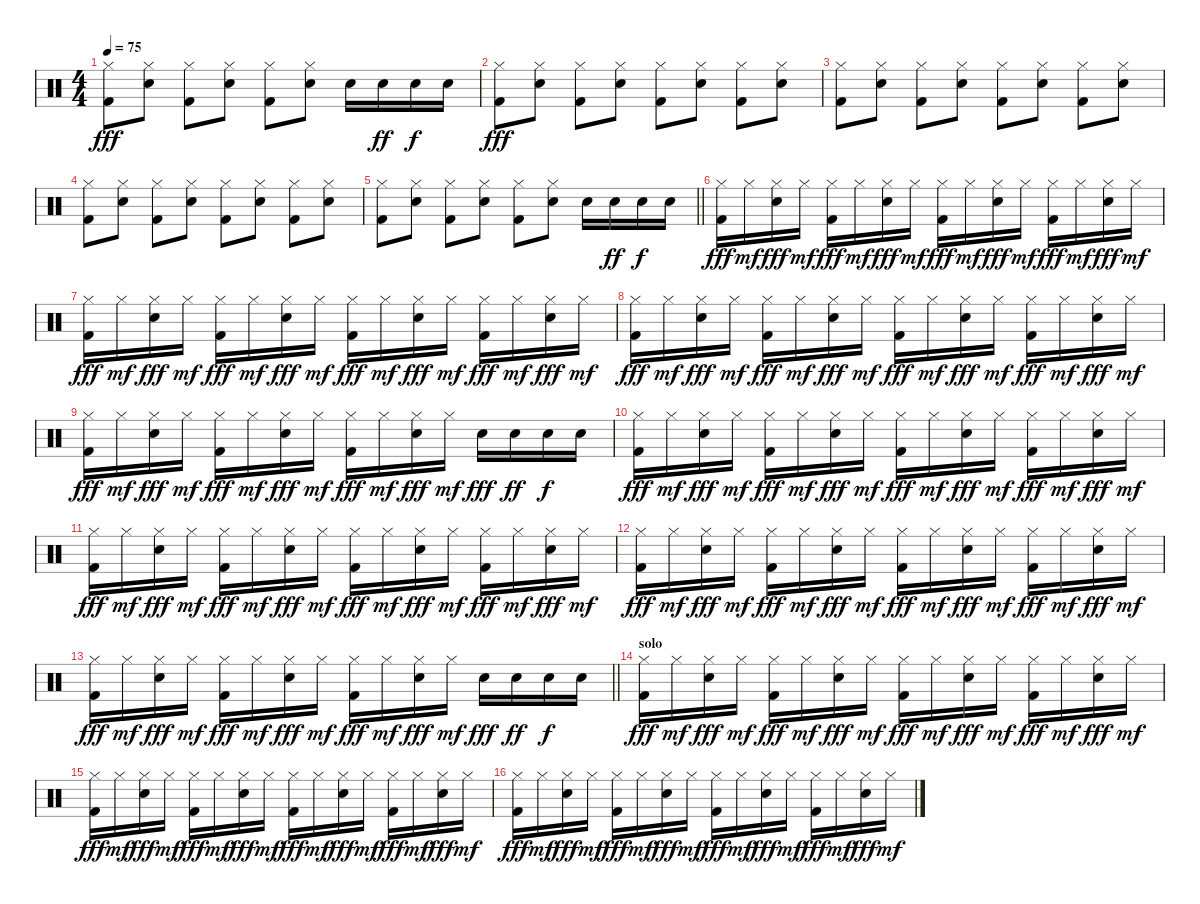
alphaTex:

\track "" {instrument percussion}
\staff {score}
\articulation defaults
\ts (4 4)
\tempo 75
\clef neutral
\ks c
("Hi-Hat (closed)" "Kick (hit) 2").8{dy fff} ("Hi-Hat (closed)" "Snare (hit) 2").8 ("Hi-Hat (closed)" "Kick (hit) 2").8 ("Hi-Hat (closed)" "Snare (hit) 2").8 ("Hi-Hat (closed)" "Kick (hit) 2").8 ("Hi-Hat (closed)" "Snare (hit) 2").8 "Snare (hit) 2".16 "Snare (hit) 2".16{dy ff} "Snare (hit) 2".16{dy f} "Snare (hit) 2".16 |
("Hi-Hat (closed)" "Kick (hit) 2").8{dy fff} ("Hi-Hat (closed)" "Snare (hit) 2").8 ("Hi-Hat (closed)" "Kick (hit) 2").8 ("Hi-Hat (closed)" "Snare (hit) 2").8 ("Hi-Hat (closed)" "Kick (hit) 2").8 ("Hi-Hat (closed)" "Snare (hit) 2").8 ("Hi-Hat (closed)" "Kick (hit) 2").8 ("Hi-Hat (closed)" "Snare (hit) 2").8 |
("Hi-Hat (closed)" "Kick (hit) 2").8 ("Hi-Hat (closed)" "Snare (hit) 2").8 ("Hi-Hat (closed)" "Kick (hit) 2").8 ("Hi-Hat (closed)" "Snare (hit) 2").8 ("Hi-Hat (closed)" "Kick (hit) 2").8 ("Hi-Hat (closed)" "Snare (hit) 2").8 ("Hi-Hat (closed)" "Kick (hit) 2").8 ("Hi-Hat (closed)" "Snare (hit) 2").8 |
("Hi-Hat (closed)" "Kick (hit) 2").8 ("Hi-Hat (closed)" "Snare (hit) 2").8 ("Hi-Hat (closed)" "Kick (hit) 2").8 ("Hi-Hat (closed)" "Snare (hit) 2").8 ("Hi-Hat (closed)" "Kick (hit) 2").8 ("Hi-Hat (closed)" "Snare (hit) 2").8 ("Hi-Hat (closed)" "Kick (hit) 2").8 ("Hi-Hat (closed)" "Snare (hit) 2").8 |
\barLineRight lightlight
("Hi-Hat (closed)" "Kick (hit) 2").8 ("Hi-Hat (closed)" "Snare (hit) 2").8 ("Hi-Hat (closed)" "Kick (hit) 2").8 ("Hi-Hat (closed)" "Snare (hit) 2").8 ("Hi-Hat (closed)" "Kick (hit) 2").8 ("Hi-Hat (closed)" "Snare (hit) 2").8 "Snare (hit) 2".16 "Snare (hit) 2".16{dy ff} "Snare (hit) 2".16{dy f} "Snare (hit) 2".16 |
\section ("" "")
("Hi-Hat (closed)" "Kick (hit) 2").16{dy fff} "Hi-Hat (closed)".16{dy mf} ("Hi-Hat (closed)" "Snare (hit) 2").16{dy fff} "Hi-Hat (closed)".16{dy mf} ("Hi-Hat (closed)" "Kick (hit) 2").16{dy fff} "Hi-Hat (closed)".16{dy mf} ("Hi-Hat (closed)" "Snare (hit) 2").16{dy fff} "Hi-Hat (closed)".16{dy mf} ("Hi-Hat (closed)" "Kick (hit) 2").16{dy fff} "Hi-Hat (closed)".16{dy mf} ("Hi-Hat (closed)" "Snare (hit) 2").16{dy fff} "Hi-Hat (closed)".16{dy mf} ("Hi-Hat (closed)" "Kick (hit) 2").16{dy fff} "Hi-Hat (closed)".16{dy mf} ("Hi-Hat (closed)" "Snare (hit) 2").16{dy fff} "Hi-Hat (closed)".16{dy mf} |
("Hi-Hat (closed)" "Kick (hit) 2").16{dy fff} "Hi-Hat (closed)".16{dy mf} ("Hi-Hat (closed)" "Snare (hit) 2").16{dy fff} "Hi-Hat (closed)".16{dy mf} ("Hi-Hat (closed)" "Kick (hit) 2").16{dy fff} "Hi-Hat (closed)".16{dy mf} ("Hi-Hat (closed)" "Snare (hit) 2").16{dy fff} "Hi-Hat (closed)".16{dy mf} ("Hi-Hat (closed)" "Kick (hit) 2").16{dy fff} "Hi-Hat (closed)".16{dy mf} ("Hi-Hat (closed)" "Snare (hit) 2").16{dy fff} "Hi-Hat (closed)".16{dy mf} ("Hi-Hat (closed)" "Kick (hit) 2").16{dy fff} "Hi-Hat (closed)".16{dy mf} ("Hi-Hat (closed)" "Snare (hit) 2").16{dy fff} "Hi-Hat (closed)".16{dy mf} |
("Hi-Hat (closed)" "Kick (hit) 2").16{dy fff} "Hi-Hat (closed)".16{dy mf} ("Hi-Hat (closed)" "Snare (hit) 2").16{dy fff} "Hi-Hat (closed)".16{dy mf} ("Hi-Hat (closed)" "Kick (hit) 2").16{dy fff} "Hi-Hat (closed)".16{dy mf} ("Hi-Hat (closed)" "Snare (hit) 2").16{dy fff} "Hi-Hat (closed)".16{dy mf} ("Hi-Hat (closed)" "Kick (hit) 2").16{dy fff} "Hi-Hat (closed)".16{dy mf} ("Hi-Hat (closed)" "Snare (hit) 2").16{dy fff} "Hi-Hat (closed)".16{dy mf} ("Hi-Hat (closed)" "Kick (hit) 2").16{dy fff} "Hi-Hat (closed)".16{dy mf} ("Hi-Hat (closed)" "Snare (hit) 2").16{dy fff} "Hi-Hat (closed)".16{dy mf} |
("Hi-Hat (closed)" "Kick (hit) 2").16{dy fff} "Hi-Hat (closed)".16{dy mf} ("Hi-Hat (closed)" "Snare (hit) 2").16{dy fff} "Hi-Hat (closed)".16{dy mf} ("Hi-Hat (closed)" "Kick (hit) 2").16{dy fff} "Hi-Hat (closed)".16{dy mf} ("Hi-Hat (closed)" "Snare (hit) 2").16{dy fff} "Hi-Hat (closed)".16{dy mf} ("Hi-Hat (closed)" "Kick (hit) 2").16{dy fff} "Hi-Hat (closed)".16{dy mf} ("Hi-Hat (closed)" "Snare (hit) 2").16{dy fff} "Hi-Hat (closed)".16{dy mf} "Snare (hit) 2".16{dy fff} "Snare (hit) 2".16{dy ff} "Snare (hit) 2".16{dy f} "Snare (hit) 2".16 |
("Hi-Hat (closed)" "Kick (hit) 2").16{dy fff} "Hi-Hat (closed)".16{dy mf} ("Hi-Hat (closed)" "Snare (hit) 2").16{dy fff} "Hi-Hat (closed)".16{dy mf} ("Hi-Hat (closed)" "Kick (hit) 2").16{dy fff} "Hi-Hat (closed)".16{dy mf} ("Hi-Hat (closed)" "Snare (hit) 2").16{dy fff} "Hi-Hat (closed)".16{dy mf} ("Hi-Hat (closed)" "Kick (hit) 2").16{dy fff} "Hi-Hat (closed)".16{dy mf} ("Hi-Hat (closed)" "Snare (hit) 2").16{dy fff} "Hi-Hat (closed)".16{dy mf} ("Hi-Hat (closed)" "Kick (hit) 2").16{dy fff} "Hi-Hat (closed)".16{dy mf} ("Hi-Hat (closed)" "Snare (hit) 2").16{dy fff} "Hi-Hat (closed)".16{dy mf} |
("Hi-Hat (closed)" "Kick (hit) 2").16{dy fff} "Hi-Hat (closed)".16{dy mf} ("Hi-Hat (closed)" "Snare (hit) 2").16{dy fff} "Hi-Hat (closed)".16{dy mf} ("Hi-Hat (closed)" "Kick (hit) 2").16{dy fff} "Hi-Hat (closed)".16{dy mf} ("Hi-Hat (closed)" "Snare (hit) 2").16{dy fff} "Hi-Hat (closed)".16{dy mf} ("Hi-Hat (closed)" "Kick (hit) 2").16{dy fff} "Hi-Hat (closed)".16{dy mf} ("Hi-Hat (closed)" "Snare (hit) 2").16{dy fff} "Hi-Hat (closed)".16{dy mf} ("Hi-Hat (closed)" "Kick (hit) 2").16{dy fff} "Hi-Hat (closed)".16{dy mf} ("Hi-Hat (closed)" "Snare (hit) 2").16{dy fff} "Hi-Hat (closed)".16{dy mf} |
("Hi-Hat (closed)" "Kick (hit) 2").16{dy fff} "Hi-Hat (closed)".16{dy mf} ("Hi-Hat (closed)" "Snare (hit) 2").16{dy fff} "Hi-Hat (closed)".16{dy mf} ("Hi-Hat (closed)" "Kick (hit) 2").16{dy fff} "Hi-Hat (closed)".16{dy mf} ("Hi-Hat (closed)" "Snare (hit) 2").16{dy fff} "Hi-Hat (closed)".16{dy mf} ("Hi-Hat (closed)" "Kick (hit) 2").16{dy fff} "Hi-Hat (closed)".16{dy mf} ("Hi-Hat (closed)" "Snare (hit) 2").16{dy fff} "Hi-Hat (closed)".16{dy mf} ("Hi-Hat (closed)" "Kick (hit) 2").16{dy fff} "Hi-Hat (closed)".16{dy mf} ("Hi-Hat (closed)" "Snare (hit) 2").16{dy fff} "Hi-Hat (closed)".16{dy mf} |
\barLineRight lightlight
("Hi-Hat (closed)" "Kick (hit) 2").16{dy fff} "Hi-Hat (closed)".16{dy mf} ("Hi-Hat (closed)" "Snare (hit) 2").16{dy fff} "Hi-Hat (closed)".16{dy mf} ("Hi-Hat (closed)" "Kick (hit) 2").16{dy fff} "Hi-Hat (closed)".16{dy mf} ("Hi-Hat (closed)" "Snare (hit) 2").16{dy fff} "Hi-Hat (closed)".16{dy mf} ("Hi-Hat (closed)" "Kick (hit) 2").16{dy fff} "Hi-Hat (closed)".16{dy mf} ("Hi-Hat (closed)" "Snare (hit) 2").16{dy fff} "Hi-Hat (closed)".16{dy mf} "Snare (hit) 2".16{dy fff} "Snare (hit) 2".16{dy ff} "Snare (hit) 2".16{dy f} "Snare (hit) 2".16 |
\section ("" "solo")
("Hi-Hat (closed)" "Kick (hit) 2").16{dy fff} "Hi-Hat (closed)".16{dy mf} ("Hi-Hat (closed)" "Snare (hit) 2").16{dy fff} "Hi-Hat (closed)".16{dy mf} ("Hi-Hat (closed)" "Kick (hit) 2").16{dy fff} "Hi-Hat (closed)".16{dy mf} ("Hi-Hat (closed)" "Snare (hit) 2").16{dy fff} "Hi-Hat (closed)".16{dy mf} ("Hi-Hat (closed)" "Kick (hit) 2").16{dy fff} "Hi-Hat (closed)".16{dy mf} ("Hi-Hat (closed)" "Snare (hit) 2").16{dy fff} "Hi-Hat (closed)".16{dy mf} ("Hi-Hat (closed)" "Kick (hit) 2").16{dy fff} "Hi-Hat (closed)".16{dy mf} ("Hi-Hat (closed)" "Snare (hit) 2").16{dy fff} "Hi-Hat (closed)".16{dy mf} |
("Hi-Hat (closed)" "Kick (hit) 2").16{dy fff} "Hi-Hat (closed)".16{dy mf} ("Hi-Hat (closed)" "Snare (hit) 2").16{dy fff} "Hi-Hat (closed)".16{dy mf} ("Hi-Hat (closed)" "Kick (hit) 2").16{dy fff} "Hi-Hat (closed)".16{dy mf} ("Hi-Hat (closed)" "Snare (hit) 2").16{dy fff} "Hi-Hat (closed)".16{dy mf} ("Hi-Hat (closed)" "Kick (hit) 2").16{dy fff} "Hi-Hat (closed)".16{dy mf} ("Hi-Hat (closed)" "Snare (hit) 2").16{dy fff} "Hi-Hat (closed)".16{dy mf} ("Hi-Hat (closed)" "Kick (hit) 2").16{dy fff} "Hi-Hat (closed)".16{dy mf} ("Hi-Hat (closed)" "Snare (hit) 2").16{dy fff} "Hi-Hat (closed)".16{dy mf} |
("Hi-Hat (closed)" "Kick (hit) 2").16{dy fff} "Hi-Hat (closed)".16{dy mf} ("Hi-Hat (closed)" "Snare (hit) 2").16{dy fff} "Hi-Hat (closed)".16{dy mf} ("Hi-Hat (closed)" "Kick (hit) 2").16{dy fff} "Hi-Hat (closed)".16{dy mf} ("Hi-Hat (closed)" "Snare (hit) 2").16{dy fff} "Hi-Hat (closed)".16{dy mf} ("Hi-Hat (closed)" "Kick (hit) 2").16{dy fff} "Hi-Hat (closed)".16{dy mf} ("Hi-Hat (closed)" "Snare (hit) 2").16{dy fff} "Hi-Hat (closed)".16{dy mf} ("Hi-Hat (closed)" "Kick (hit) 2").16{dy fff} "Hi-Hat (closed)".16{dy mf} ("Hi-Hat (closed)" "Snare (hit) 2").16{dy fff} "Hi-Hat (closed)".16{dy mf}
